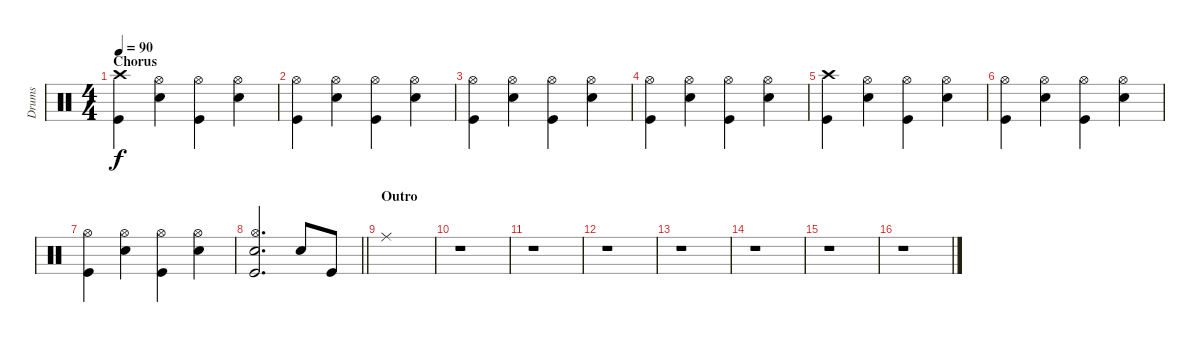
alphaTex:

\track ("Drums" "Drums") {instrument percussion}
\staff {score}
\articulation defaults
\ts (4 4)
\section ("" "Chorus")
\tempo 90
\clef neutral
\ks c
("Crash high (hit)" "Kick (hit)").4{dy f} ("Hi-Hat (open)" "Snare (hit) 2").4 ("Hi-Hat (open)" "Kick (hit)").4 ("Hi-Hat (open)" "Snare (hit) 2").4 |
("Hi-Hat (open)" "Kick (hit)").4 ("Hi-Hat (open)" "Snare (hit) 2").4 ("Hi-Hat (open)" "Kick (hit)").4 ("Hi-Hat (open)" "Snare (hit) 2").4 |
("Hi-Hat (open)" "Kick (hit)").4 ("Hi-Hat (open)" "Snare (hit) 2").4 ("Hi-Hat (open)" "Kick (hit)").4 ("Hi-Hat (open)" "Snare (hit) 2").4 |
("Hi-Hat (open)" "Kick (hit)").4 ("Hi-Hat (open)" "Snare (hit) 2").4 ("Hi-Hat (open)" "Kick (hit)").4 ("Hi-Hat (open)" "Snare (hit) 2").4 |
("Crash high (hit)" "Kick (hit)").4 ("Hi-Hat (open)" "Snare (hit) 2").4 ("Hi-Hat (open)" "Kick (hit)").4 ("Hi-Hat (open)" "Snare (hit) 2").4 |
("Hi-Hat (open)" "Kick (hit)").4 ("Hi-Hat (open)" "Snare (hit) 2").4 ("Hi-Hat (open)" "Kick (hit)").4 ("Hi-Hat (open)" "Snare (hit) 2").4 |
("Hi-Hat (open)" "Kick (hit)").4 ("Hi-Hat (open)" "Snare (hit) 2").4 ("Hi-Hat (open)" "Kick (hit)").4 ("Hi-Hat (open)" "Snare (hit) 2").4 |
\barLineRight lightlight
("Hi-Hat (open)" "Snare (hit) 2" "Kick (hit)").2{d} "Snare (hit) 2".8 "Kick (hit)".8 |
\section ("" "Outro")
"Ride (middle)".1 |
r.1 |
r.1 |
r.1 |
r.1 |
r.1 |
r.1 |
r.1
